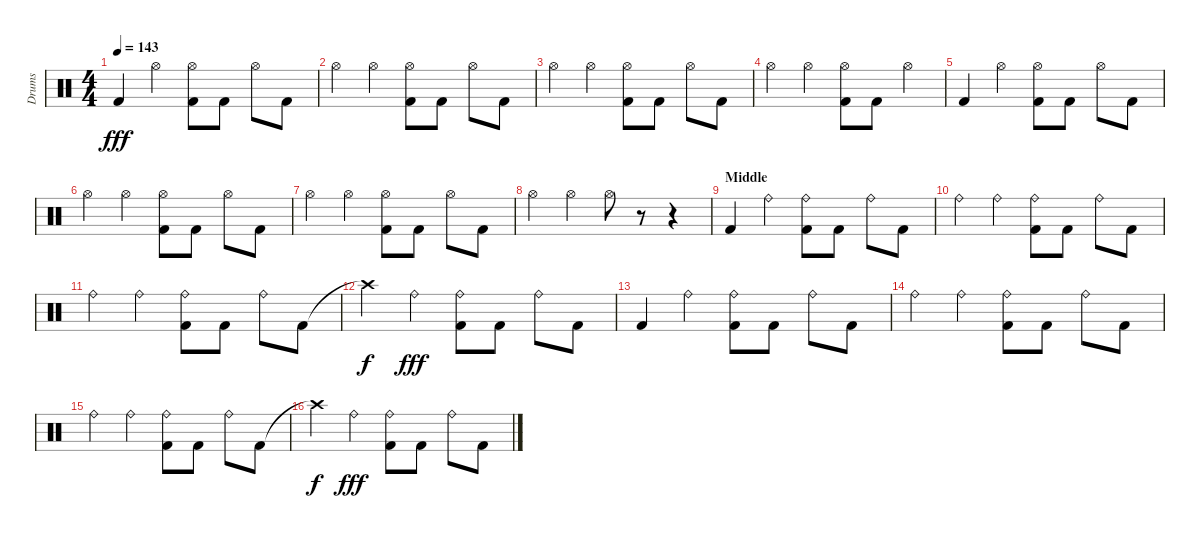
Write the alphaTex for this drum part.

\track ("Drums" "Drums") {instrument percussion}
\staff {score}
\articulation defaults
\ts (4 4)
\tempo 143
\clef neutral
\ks c "Kick (hit) 2".4{dy fff} "Hi-Hat (open)".4
("Hi-Hat (open)" "Kick (hit) 2").8 "Kick (hit) 2".8 "Hi-Hat (open)".8 "Kick (hit) 2".8 |
"Hi-Hat (open)".4 "Hi-Hat (open)".4 ("Hi-Hat (open)" "Kick (hit) 2").8 "Kick (hit) 2".8 "Hi-Hat (open)".8 "Kick (hit) 2".8 |
"Hi-Hat (open)".4 "Hi-Hat (open)".4 ("Hi-Hat (open)" "Kick (hit) 2").8 "Kick (hit) 2".8 "Hi-Hat (open)".8 "Kick (hit) 2".8 |
"Hi-Hat (open)".4 "Hi-Hat (open)".4 ("Hi-Hat (open)" "Kick (hit) 2").8 "Kick (hit) 2".8 "Hi-Hat (open)".4 |
"Kick (hit) 2".4 "Hi-Hat (open)".4 ("Hi-Hat (open)" "Kick (hit) 2").8 "Kick (hit) 2".8 "Hi-Hat (open)".8 "Kick (hit) 2".8 |
"Hi-Hat (open)".4 "Hi-Hat (open)".4 ("Hi-Hat (open)" "Kick (hit) 2").8 "Kick (hit) 2".8 "Hi-Hat (open)".8 "Kick (hit) 2".8 |
"Hi-Hat (open)".4 "Hi-Hat (open)".4 ("Hi-Hat (open)" "Kick (hit) 2").8 "Kick (hit) 2".8 "Hi-Hat (open)".8 "Kick (hit) 2".8 |
"Hi-Hat (open)".4 "Hi-Hat (open)".4 "Hi-Hat (open)".8 r.8 r.4 |
\section ("" "Middle")
"Kick (hit) 2".4 "Ride (bell)".4 ("Ride (bell)" "Kick (hit) 2").8 "Kick (hit) 2".8 "Ride (bell)".8 "Kick (hit) 2".8 |
"Ride (bell)".4 "Ride (bell)".4 ("Ride (bell)" "Kick (hit) 2").8 "Kick (hit) 2".8 "Ride (bell)".8 "Kick (hit) 2".8 |
"Ride (bell)".4 "Ride (bell)".4 ("Ride (bell)" "Kick (hit) 2").8 "Kick (hit) 2".8 "Ride (bell)".8 "Kick (hit) 2".8 |
"Crash high (hit)"{t}.4{dy f} "Ride (bell)".4{dy fff} ("Ride (bell)" "Kick (hit) 2").8 "Kick (hit) 2".8 "Ride (bell)".8 "Kick (hit) 2".8 |
"Kick (hit) 2".4 "Ride (bell)".4 ("Ride (bell)" "Kick (hit) 2").8 "Kick (hit) 2".8 "Ride (bell)".8 "Kick (hit) 2".8 |
"Ride (bell)".4 "Ride (bell)".4 ("Ride (bell)" "Kick (hit) 2").8 "Kick (hit) 2".8 "Ride (bell)".8 "Kick (hit) 2".8 |
"Ride (bell)".4 "Ride (bell)".4 ("Ride (bell)" "Kick (hit) 2").8 "Kick (hit) 2".8 "Ride (bell)".8 "Kick (hit) 2".8 |
"Crash high (hit)"{t}.4{dy f} "Ride (bell)".4{dy fff} ("Ride (bell)" "Kick (hit) 2").8 "Kick (hit) 2".8 "Ride (bell)".8 "Kick (hit) 2".8
